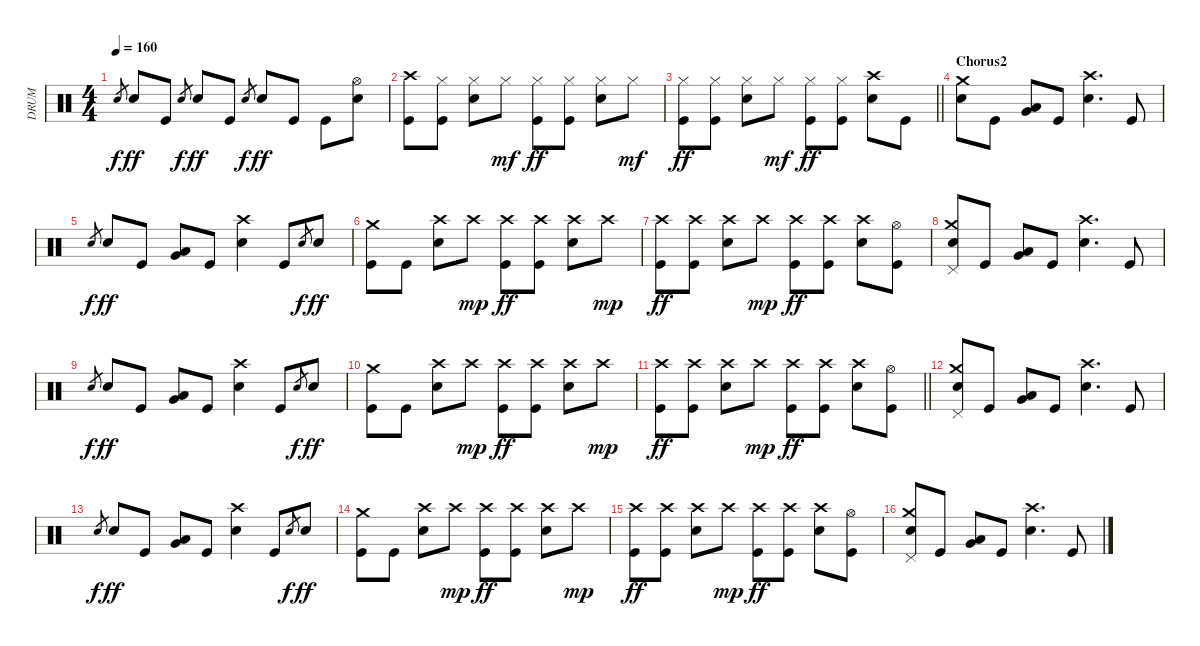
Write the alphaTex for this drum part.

\track ("DRUM" "DRUM") {instrument percussion}
\staff {score}
\articulation defaults
\ts (4 4)
\tempo 160
\clef neutral
\ks c "Electric Snare (hit)".8{gr dy f} "Electric Snare (hit)".8{dy ff} "Kick (hit)".8 "Electric Snare (hit)".8{gr dy f} "Electric Snare (hit)".8{dy ff} "Kick (hit)".8 "Electric Snare (hit)".8{gr dy f} "Electric Snare (hit)".8{dy ff} "Kick (hit)".8 "Kick (hit)".8
("Hi-Hat (open)" "Electric Snare (hit)").8 |
("Crash high (hit)" "Kick (hit)").8 ("Hi-Hat (closed)" "Kick (hit)").8 ("Hi-Hat (closed)" "Electric Snare (hit)").8 "Hi-Hat (closed)".8{dy mf} ("Hi-Hat (closed)" "Kick (hit)").8{dy ff} ("Hi-Hat (closed)" "Kick (hit)").8 ("Hi-Hat (closed)" "Electric Snare (hit)").8 "Hi-Hat (closed)".8{dy mf} |
\barLineRight lightlight
("Hi-Hat (closed)" "Kick (hit)").8{dy ff} ("Hi-Hat (closed)" "Kick (hit)").8 ("Hi-Hat (closed)" "Electric Snare (hit)").8 "Hi-Hat (closed)".8{dy mf} ("Hi-Hat (closed)" "Kick (hit)").8{dy ff} ("Hi-Hat (closed)" "Kick (hit)").8 ("Crash high (hit)" "Electric Snare (hit)").8 "Kick (hit)".8 |
\section ("" "Chorus2")
("Crash medium (hit)" "Electric Snare (hit)").8 "Kick (hit)".8 ("Very Low Tom (hit)" "Low Floor Tom (hit)").8 "Kick (hit)".8 ("Crash high (hit)" "Electric Snare (hit)").4{d} "Kick (hit)".8 |
"Electric Snare (hit)".8{gr dy f} "Electric Snare (hit)".8{dy ff} "Kick (hit)".8 ("Very Low Tom (hit)" "Low Floor Tom (hit)").8 "Kick (hit)".8 ("Crash high (hit)" "Electric Snare (hit)").4 "Kick (hit)".8 "Electric Snare (hit)".8{gr dy f} "Electric Snare (hit)".8{dy ff} |
("Crash medium (hit)" "Kick (hit)").8 "Kick (hit)".8 ("Crash high (hit)" "Electric Snare (hit)").8 "Crash high (hit)".8{dy mp} ("Crash high (hit)" "Kick (hit)").8{dy ff} ("Crash high (hit)" "Kick (hit)").8 ("Crash high (hit)" "Electric Snare (hit)").8 "Crash high (hit)".8{dy mp} |
("Crash high (hit)" "Kick (hit)").8{dy ff} ("Crash high (hit)" "Kick (hit)").8 ("Crash high (hit)" "Electric Snare (hit)").8 "Crash high (hit)".8{dy mp} ("Crash high (hit)" "Kick (hit)").8{dy ff} ("Crash high (hit)" "Kick (hit)").8 ("Crash high (hit)" "Electric Snare (hit)").8 ("Hi-Hat (open)" "Kick (hit)").8 |
("Crash medium (hit)" "Pedal Hi-Hat (hit)" "Electric Snare (hit)").8 "Kick (hit)".8 ("Very Low Tom (hit)" "Low Floor Tom (hit)").8 "Kick (hit)".8 ("Crash high (hit)" "Electric Snare (hit)").4{d} "Kick (hit)".8 |
"Electric Snare (hit)".8{gr dy f} "Electric Snare (hit)".8{dy ff} "Kick (hit)".8 ("Very Low Tom (hit)" "Low Floor Tom (hit)").8 "Kick (hit)".8 ("Crash high (hit)" "Electric Snare (hit)").4 "Kick (hit)".8 "Electric Snare (hit)".8{gr dy f} "Electric Snare (hit)".8{dy ff} |
("Crash medium (hit)" "Kick (hit)").8 "Kick (hit)".8 ("Crash high (hit)" "Electric Snare (hit)").8 "Crash high (hit)".8{dy mp} ("Crash high (hit)" "Kick (hit)").8{dy ff} ("Crash high (hit)" "Kick (hit)").8 ("Crash high (hit)" "Electric Snare (hit)").8 "Crash high (hit)".8{dy mp} |
\barLineRight lightlight
("Crash high (hit)" "Kick (hit)").8{dy ff} ("Crash high (hit)" "Kick (hit)").8 ("Crash high (hit)" "Electric Snare (hit)").8 "Crash high (hit)".8{dy mp} ("Crash high (hit)" "Kick (hit)").8{dy ff} ("Crash high (hit)" "Kick (hit)").8 ("Crash high (hit)" "Electric Snare (hit)").8 ("Hi-Hat (open)" "Kick (hit)").8 |
("Crash medium (hit)" "Pedal Hi-Hat (hit)" "Electric Snare (hit)").8 "Kick (hit)".8 ("Very Low Tom (hit)" "Low Floor Tom (hit)").8 "Kick (hit)".8 ("Crash high (hit)" "Electric Snare (hit)").4{d} "Kick (hit)".8 |
"Electric Snare (hit)".8{gr dy f} "Electric Snare (hit)".8{dy ff} "Kick (hit)".8 ("Very Low Tom (hit)" "Low Floor Tom (hit)").8 "Kick (hit)".8 ("Crash high (hit)" "Electric Snare (hit)").4 "Kick (hit)".8 "Electric Snare (hit)".8{gr dy f} "Electric Snare (hit)".8{dy ff} |
("Crash medium (hit)" "Kick (hit)").8 "Kick (hit)".8 ("Crash high (hit)" "Electric Snare (hit)").8 "Crash high (hit)".8{dy mp} ("Crash high (hit)" "Kick (hit)").8{dy ff} ("Crash high (hit)" "Kick (hit)").8 ("Crash high (hit)" "Electric Snare (hit)").8 "Crash high (hit)".8{dy mp} |
("Crash high (hit)" "Kick (hit)").8{dy ff} ("Crash high (hit)" "Kick (hit)").8 ("Crash high (hit)" "Electric Snare (hit)").8 "Crash high (hit)".8{dy mp} ("Crash high (hit)" "Kick (hit)").8{dy ff} ("Crash high (hit)" "Kick (hit)").8 ("Crash high (hit)" "Electric Snare (hit)").8 ("Hi-Hat (open)" "Kick (hit)").8 |
("Crash medium (hit)" "Pedal Hi-Hat (hit)" "Electric Snare (hit)").8 "Kick (hit)".8 ("Very Low Tom (hit)" "Low Floor Tom (hit)").8 "Kick (hit)".8 ("Crash high (hit)" "Electric Snare (hit)").4{d} "Kick (hit)".8
